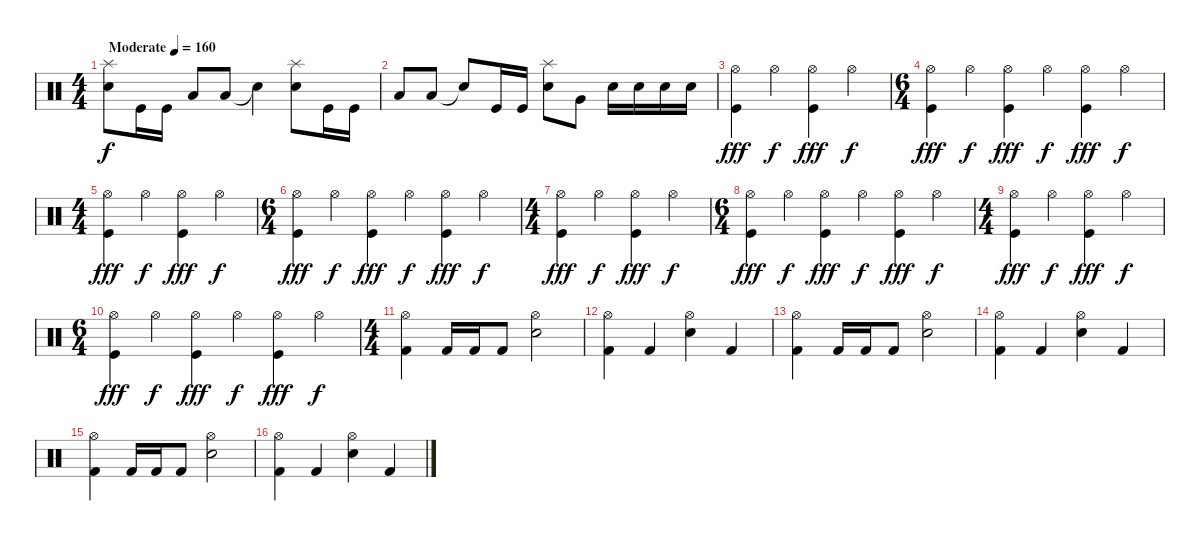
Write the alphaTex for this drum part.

\track "" {instrument percussion}
\staff {score}
\articulation defaults
\ts (4 4)
\tempo (160 "Moderate")
\clef neutral
\ks c
("Splash (hit)" "Electric Snare (hit)").8{dy f} "Kick (hit)".16 "Kick (hit)".16 "Low Floor Tom (hit)".8 "Low Floor Tom (hit)".8 "Snare (hit)"{t}.4 ("Splash (hit)" "Electric Snare (hit)").8 "Kick (hit)".16 "Kick (hit)".16 |
"Low Floor Tom (hit)".8 "Low Floor Tom (hit)".8 "Snare (hit)"{t}.8 "Kick (hit)".16 "Kick (hit)".16 ("Splash (hit)" "Electric Snare (hit)").8 "Very Low Tom (hit)".8 "Electric Snare (hit)".16 "Electric Snare (hit)".16 "Electric Snare (hit)".16 "Electric Snare (hit)".16 |
("Hi-Hat (open)" "Kick (hit)").4{dy fff} "Hi-Hat (open)".4{dy f} ("Hi-Hat (open)" "Kick (hit)").4{dy fff} "Hi-Hat (open)".4{dy f} |
\ts (6 4)
("Hi-Hat (open)" "Kick (hit)").4{dy fff} "Hi-Hat (open)".4{dy f} ("Hi-Hat (open)" "Kick (hit)").4{dy fff} "Hi-Hat (open)".4{dy f} ("Hi-Hat (open)" "Kick (hit)").4{dy fff} "Hi-Hat (open)".4{dy f} |
\ts (4 4)
("Hi-Hat (open)" "Kick (hit)").4{dy fff} "Hi-Hat (open)".4{dy f} ("Hi-Hat (open)" "Kick (hit)").4{dy fff} "Hi-Hat (open)".4{dy f} |
\ts (6 4)
("Hi-Hat (open)" "Kick (hit)").4{dy fff} "Hi-Hat (open)".4{dy f} ("Hi-Hat (open)" "Kick (hit)").4{dy fff} "Hi-Hat (open)".4{dy f} ("Hi-Hat (open)" "Kick (hit)").4{dy fff} "Hi-Hat (open)".4{dy f} |
\ts (4 4)
("Hi-Hat (open)" "Kick (hit)").4{dy fff} "Hi-Hat (open)".4{dy f} ("Hi-Hat (open)" "Kick (hit)").4{dy fff} "Hi-Hat (open)".4{dy f} |
\ts (6 4)
("Hi-Hat (open)" "Kick (hit)").4{dy fff} "Hi-Hat (open)".4{dy f} ("Hi-Hat (open)" "Kick (hit)").4{dy fff} "Hi-Hat (open)".4{dy f} ("Hi-Hat (open)" "Kick (hit)").4{dy fff} "Hi-Hat (open)".4{dy f} |
\ts (4 4)
("Hi-Hat (open)" "Kick (hit)").4{dy fff} "Hi-Hat (open)".4{dy f} ("Hi-Hat (open)" "Kick (hit)").4{dy fff} "Hi-Hat (open)".4{dy f} |
\ts (6 4)
("Hi-Hat (open)" "Kick (hit)").4{dy fff} "Hi-Hat (open)".4{dy f} ("Hi-Hat (open)" "Kick (hit)").4{dy fff} "Hi-Hat (open)".4{dy f} ("Hi-Hat (open)" "Kick (hit)").4{dy fff} "Hi-Hat (open)".4{dy f} |
\ts (4 4)
("Hi-Hat (open)" "Kick (hit) 2").4 "Kick (hit) 2".16 "Kick (hit) 2".16 "Kick (hit) 2".8 ("Hi-Hat (open)" "Electric Snare (hit)").2 |
("Hi-Hat (open)" "Kick (hit) 2").4 "Kick (hit) 2".4 ("Hi-Hat (open)" "Electric Snare (hit)").4 "Kick (hit) 2".4 |
("Hi-Hat (open)" "Kick (hit) 2").4 "Kick (hit) 2".16 "Kick (hit) 2".16 "Kick (hit) 2".8 ("Hi-Hat (open)" "Electric Snare (hit)").2 |
("Hi-Hat (open)" "Kick (hit) 2").4 "Kick (hit) 2".4 ("Hi-Hat (open)" "Electric Snare (hit)").4 "Kick (hit) 2".4 |
("Hi-Hat (open)" "Kick (hit) 2").4 "Kick (hit) 2".16 "Kick (hit) 2".16 "Kick (hit) 2".8 ("Hi-Hat (open)" "Electric Snare (hit)").2 |
("Hi-Hat (open)" "Kick (hit) 2").4 "Kick (hit) 2".4 ("Hi-Hat (open)" "Electric Snare (hit)").4 "Kick (hit) 2".4
